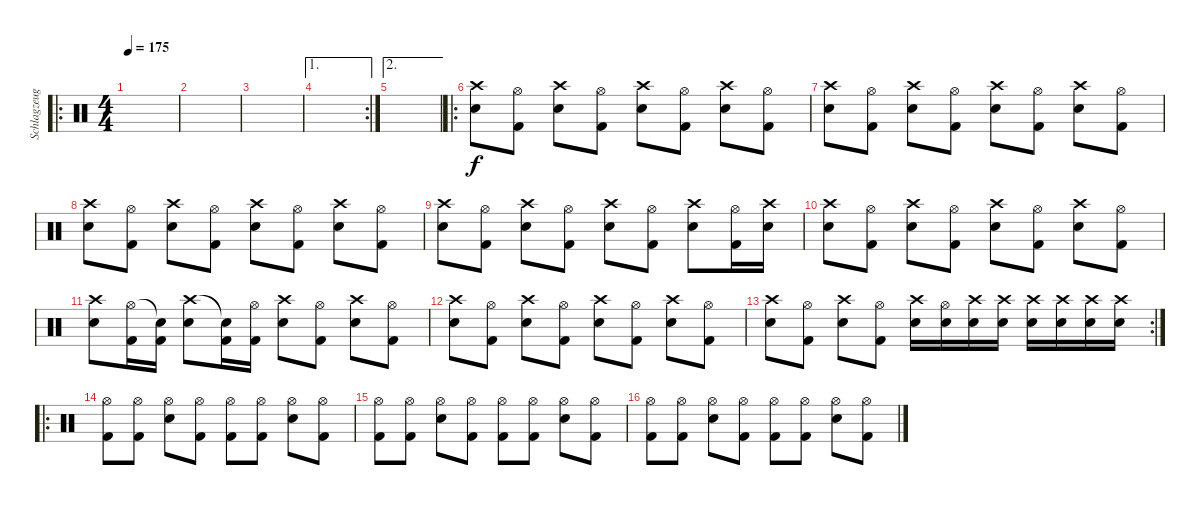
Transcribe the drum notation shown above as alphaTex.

\track ("Schlagzeug" "Schlagzeug") {instrument percussion}
\staff {score}
\articulation defaults
\ro
\ts (4 4)
\tempo 175
\clef neutral
\ks c
|
|
|
\ae 1
\rc 2
|
\ae 2
|
\ro
("Crash high (hit)" "Electric Snare (hit)").8 ("Hi-Hat (open)" "Kick (hit) 2").8 ("Crash high (hit)" "Electric Snare (hit)").8 ("Hi-Hat (open)" "Kick (hit) 2").8 ("Crash high (hit)" "Electric Snare (hit)").8 ("Hi-Hat (open)" "Kick (hit) 2").8 ("Crash high (hit)" "Electric Snare (hit)").8 ("Hi-Hat (open)" "Kick (hit) 2").8 |
("Crash high (hit)" "Electric Snare (hit)").8 ("Hi-Hat (open)" "Kick (hit) 2").8 ("Crash high (hit)" "Electric Snare (hit)").8 ("Hi-Hat (open)" "Kick (hit) 2").8 ("Crash high (hit)" "Electric Snare (hit)").8 ("Hi-Hat (open)" "Kick (hit) 2").8 ("Crash high (hit)" "Electric Snare (hit)").8 ("Hi-Hat (open)" "Kick (hit) 2").8 |
("Crash high (hit)" "Electric Snare (hit)").8 ("Hi-Hat (open)" "Kick (hit) 2").8 ("Crash high (hit)" "Electric Snare (hit)").8 ("Hi-Hat (open)" "Kick (hit) 2").8 ("Crash high (hit)" "Electric Snare (hit)").8 ("Hi-Hat (open)" "Kick (hit) 2").8 ("Crash high (hit)" "Electric Snare (hit)").8 ("Hi-Hat (open)" "Kick (hit) 2").8 |
("Crash high (hit)" "Electric Snare (hit)").8 ("Hi-Hat (open)" "Kick (hit) 2").8 ("Crash high (hit)" "Electric Snare (hit)").8 ("Hi-Hat (open)" "Kick (hit) 2").8 ("Crash high (hit)" "Electric Snare (hit)").8 ("Hi-Hat (open)" "Kick (hit) 2").8 ("Crash high (hit)" "Electric Snare (hit)").8 ("Hi-Hat (open)" "Kick (hit) 2").16 ("Crash high (hit)" "Electric Snare (hit)").16 |
("Crash high (hit)" "Electric Snare (hit)").8 ("Hi-Hat (open)" "Kick (hit) 2").8 ("Crash high (hit)" "Electric Snare (hit)").8 ("Hi-Hat (open)" "Kick (hit) 2").8 ("Crash high (hit)" "Electric Snare (hit)").8 ("Hi-Hat (open)" "Kick (hit) 2").8 ("Crash high (hit)" "Electric Snare (hit)").8 ("Hi-Hat (open)" "Kick (hit) 2").8 |
("Crash high (hit)" "Electric Snare (hit)").8 ("Hi-Hat (open)" "Kick (hit) 2").16 ("Snare (hit)"{t} "Kick (hit) 2").16 ("Crash high (hit)" "Electric Snare (hit)").8 ("Snare (hit)"{t} "Kick (hit) 2").16 ("Hi-Hat (open)" "Kick (hit) 2").16 ("Crash high (hit)" "Electric Snare (hit)").8 ("Hi-Hat (open)" "Kick (hit) 2").8 ("Crash high (hit)" "Electric Snare (hit)").8 ("Hi-Hat (open)" "Kick (hit) 2").8 |
("Crash high (hit)" "Electric Snare (hit)").8 ("Hi-Hat (open)" "Kick (hit) 2").8 ("Crash high (hit)" "Electric Snare (hit)").8 ("Hi-Hat (open)" "Kick (hit) 2").8 ("Crash high (hit)" "Electric Snare (hit)").8 ("Hi-Hat (open)" "Kick (hit) 2").8 ("Crash high (hit)" "Electric Snare (hit)").8 ("Hi-Hat (open)" "Kick (hit) 2").8 |
\rc 2
("Crash high (hit)" "Electric Snare (hit)").8 ("Hi-Hat (open)" "Kick (hit) 2").8 ("Crash high (hit)" "Electric Snare (hit)").8 ("Hi-Hat (open)" "Kick (hit) 2").8 ("Crash high (hit)" "Electric Snare (hit)").16 ("Hi-Hat (open)" "Electric Snare (hit)").16 ("Crash high (hit)" "Electric Snare (hit)").16 ("Crash high (hit)" "Electric Snare (hit)").16 ("Crash high (hit)" "Electric Snare (hit)").16 ("Crash high (hit)" "Electric Snare (hit)").16 ("Crash high (hit)" "Electric Snare (hit)").16 ("Crash high (hit)" "Electric Snare (hit)").16 |
\ro
("Hi-Hat (open)" "Kick (hit) 2").8 ("Hi-Hat (open)" "Kick (hit) 2").8 ("Hi-Hat (open)" "Electric Snare (hit)").8 ("Hi-Hat (open)" "Kick (hit) 2").8 ("Hi-Hat (open)" "Kick (hit) 2").8 ("Hi-Hat (open)" "Kick (hit) 2").8 ("Hi-Hat (open)" "Electric Snare (hit)").8 ("Hi-Hat (open)" "Kick (hit) 2").8 |
("Hi-Hat (open)" "Kick (hit) 2").8 ("Hi-Hat (open)" "Kick (hit) 2").8 ("Hi-Hat (open)" "Electric Snare (hit)").8 ("Hi-Hat (open)" "Kick (hit) 2").8 ("Hi-Hat (open)" "Kick (hit) 2").8 ("Hi-Hat (open)" "Kick (hit) 2").8 ("Hi-Hat (open)" "Electric Snare (hit)").8 ("Hi-Hat (open)" "Kick (hit) 2").8 |
("Hi-Hat (open)" "Kick (hit) 2").8 ("Hi-Hat (open)" "Kick (hit) 2").8 ("Hi-Hat (open)" "Electric Snare (hit)").8 ("Hi-Hat (open)" "Kick (hit) 2").8 ("Hi-Hat (open)" "Kick (hit) 2").8 ("Hi-Hat (open)" "Kick (hit) 2").8 ("Hi-Hat (open)" "Electric Snare (hit)").8 ("Hi-Hat (open)" "Kick (hit) 2").8
